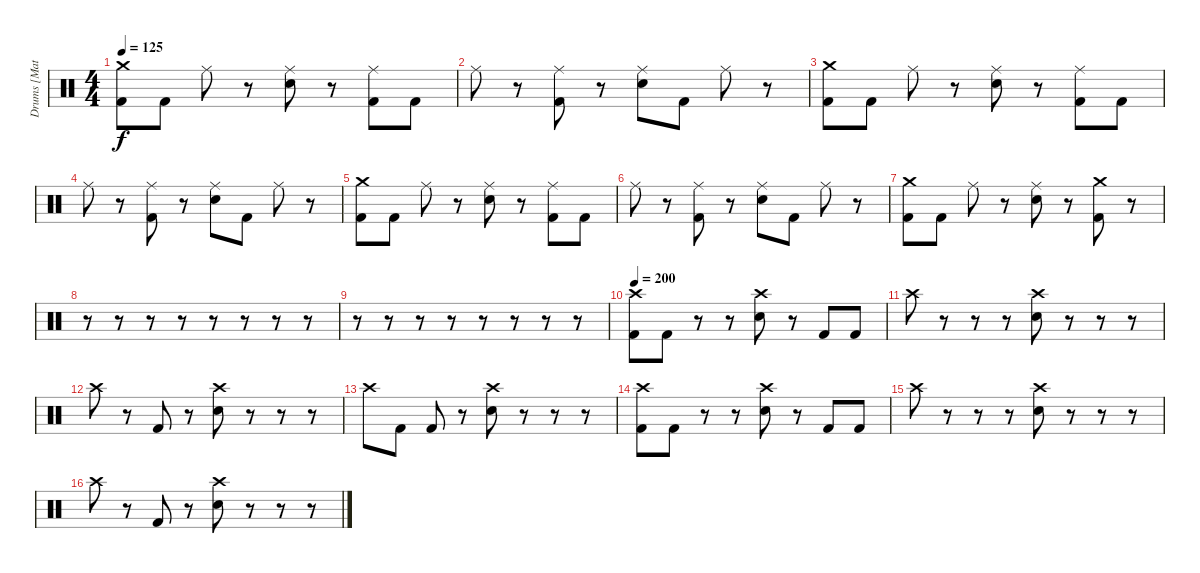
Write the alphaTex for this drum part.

\track ("Drums [Matt]" "Drums [Mat") {instrument percussion}
\staff {score}
\articulation defaults
\ts (4 4)
\tempo 125
\clef neutral
\ks c
("Crash medium (hit)" "Kick (hit) 2").8{dy f} "Kick (hit) 2".8 "Ride (middle)".8 r.8 ("Ride (middle)" "Electric Snare (hit)").8 r.8 ("Ride (middle)" "Kick (hit) 2").8 "Kick (hit) 2".8 |
"Ride (middle)".8 r.8 ("Ride (middle)" "Kick (hit) 2").8 r.8 ("Ride (middle)" "Electric Snare (hit)").8 "Kick (hit) 2".8 "Ride (middle)".8 r.8 |
("Crash medium (hit)" "Kick (hit) 2").8 "Kick (hit) 2".8 "Ride (middle)".8 r.8 ("Ride (middle)" "Electric Snare (hit)").8 r.8 ("Ride (middle)" "Kick (hit) 2").8 "Kick (hit) 2".8 |
"Ride (middle)".8 r.8 ("Ride (middle)" "Kick (hit) 2").8 r.8 ("Ride (middle)" "Electric Snare (hit)").8 "Kick (hit) 2".8 "Ride (middle)".8 r.8 |
("Crash medium (hit)" "Kick (hit) 2").8 "Kick (hit) 2".8 "Ride (middle)".8 r.8 ("Ride (middle)" "Electric Snare (hit)").8 r.8 ("Ride (middle)" "Kick (hit) 2").8 "Kick (hit) 2".8 |
"Ride (middle)".8 r.8 ("Ride (middle)" "Kick (hit) 2").8 r.8 ("Ride (middle)" "Electric Snare (hit)").8 "Kick (hit) 2".8 "Ride (middle)".8 r.8 |
("Crash medium (hit)" "Kick (hit) 2").8 "Kick (hit) 2".8 "Ride (middle)".8 r.8 ("Ride (middle)" "Electric Snare (hit)").8 r.8 ("Crash medium (hit)" "Kick (hit) 2").8 r.8 |
r.8 r.8 r.8 r.8 r.8 r.8 r.8 r.8 |
r.8 r.8 r.8 r.8 r.8 r.8 r.8 r.8 |
\tempo 200
("Crash high (hit)" "Kick (hit) 2").8 "Kick (hit) 2".8 r.8 r.8 ("Crash high (hit)" "Electric Snare (hit)").8 r.8 "Kick (hit) 2".8 "Kick (hit) 2".8 |
"Crash high (hit)".8 r.8 r.8 r.8 ("Crash high (hit)" "Electric Snare (hit)").8 r.8 r.8 r.8 |
"Crash high (hit)".8 r.8 "Kick (hit) 2".8 r.8 ("Crash high (hit)" "Electric Snare (hit)").8 r.8 r.8 r.8 |
"Crash high (hit)".8 "Kick (hit) 2".8 "Kick (hit) 2".8 r.8 ("Crash high (hit)" "Electric Snare (hit)").8 r.8 r.8 r.8 |
("Crash high (hit)" "Kick (hit) 2").8 "Kick (hit) 2".8 r.8 r.8 ("Crash high (hit)" "Electric Snare (hit)").8 r.8 "Kick (hit) 2".8 "Kick (hit) 2".8 |
"Crash high (hit)".8 r.8 r.8 r.8 ("Crash high (hit)" "Electric Snare (hit)").8 r.8 r.8 r.8 |
"Crash high (hit)".8 r.8 "Kick (hit) 2".8 r.8 ("Crash high (hit)" "Electric Snare (hit)").8 r.8 r.8 r.8
